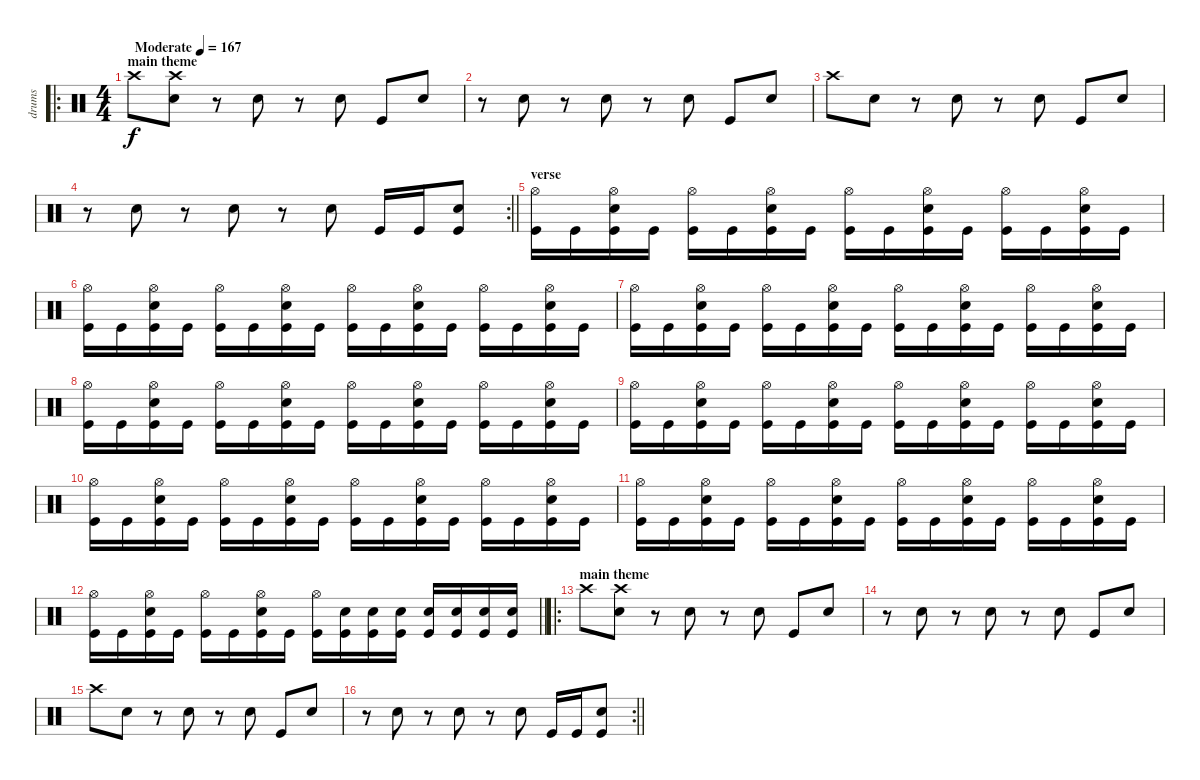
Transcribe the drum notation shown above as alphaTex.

\track ("drums" "drums") {instrument percussion}
\staff {score}
\articulation defaults
\ro
\ts (4 4)
\section ("" "main theme")
\tempo (167 "Moderate")
\clef neutral
\ks c "Crash high (hit)".8{dy f}
("Snare (hit) 2" "Crash high (hit)").8 r.8 "Snare (hit) 2".8 r.8 "Snare (hit) 2".8 "Kick (hit)".8 "Snare (hit) 2".8 |
r.8 "Snare (hit) 2".8 r.8 "Snare (hit) 2".8 r.8 "Snare (hit) 2".8 "Kick (hit)".8 "Snare (hit) 2".8 |
"Crash high (hit)".8 "Snare (hit) 2".8 r.8 "Snare (hit) 2".8 r.8 "Snare (hit) 2".8 "Kick (hit)".8 "Snare (hit) 2".8 |
\rc 2
\barLineRight lightlight
r.8 "Snare (hit) 2".8 r.8 "Snare (hit) 2".8 r.8 "Snare (hit) 2".8 "Kick (hit)".16 "Kick (hit)".16 ("Snare (hit) 2" "Kick (hit)").8 |
\section ("" "verse")
("Hi-Hat (open)" "Kick (hit)").16 "Kick (hit)".16 ("Snare (hit) 2" "Hi-Hat (open)" "Kick (hit)").16 "Kick (hit)".16 ("Hi-Hat (open)" "Kick (hit)").16 "Kick (hit)".16 ("Snare (hit) 2" "Hi-Hat (open)" "Kick (hit)").16 "Kick (hit)".16 ("Hi-Hat (open)" "Kick (hit)").16 "Kick (hit)".16 ("Snare (hit) 2" "Hi-Hat (open)" "Kick (hit)").16 "Kick (hit)".16 ("Hi-Hat (open)" "Kick (hit)").16 "Kick (hit)".16 ("Snare (hit) 2" "Hi-Hat (open)" "Kick (hit)").16 "Kick (hit)".16 |
("Hi-Hat (open)" "Kick (hit)").16 "Kick (hit)".16 ("Snare (hit) 2" "Hi-Hat (open)" "Kick (hit)").16 "Kick (hit)".16 ("Hi-Hat (open)" "Kick (hit)").16 "Kick (hit)".16 ("Snare (hit) 2" "Hi-Hat (open)" "Kick (hit)").16 "Kick (hit)".16 ("Hi-Hat (open)" "Kick (hit)").16 "Kick (hit)".16 ("Snare (hit) 2" "Hi-Hat (open)" "Kick (hit)").16 "Kick (hit)".16 ("Hi-Hat (open)" "Kick (hit)").16 "Kick (hit)".16 ("Snare (hit) 2" "Hi-Hat (open)" "Kick (hit)").16 "Kick (hit)".16 |
("Hi-Hat (open)" "Kick (hit)").16 "Kick (hit)".16 ("Snare (hit) 2" "Hi-Hat (open)" "Kick (hit)").16 "Kick (hit)".16 ("Hi-Hat (open)" "Kick (hit)").16 "Kick (hit)".16 ("Snare (hit) 2" "Hi-Hat (open)" "Kick (hit)").16 "Kick (hit)".16 ("Hi-Hat (open)" "Kick (hit)").16 "Kick (hit)".16 ("Snare (hit) 2" "Hi-Hat (open)" "Kick (hit)").16 "Kick (hit)".16 ("Hi-Hat (open)" "Kick (hit)").16 "Kick (hit)".16 ("Snare (hit) 2" "Hi-Hat (open)" "Kick (hit)").16 "Kick (hit)".16 |
("Hi-Hat (open)" "Kick (hit)").16 "Kick (hit)".16 ("Snare (hit) 2" "Hi-Hat (open)" "Kick (hit)").16 "Kick (hit)".16 ("Hi-Hat (open)" "Kick (hit)").16 "Kick (hit)".16 ("Snare (hit) 2" "Hi-Hat (open)" "Kick (hit)").16 "Kick (hit)".16 ("Hi-Hat (open)" "Kick (hit)").16 "Kick (hit)".16 ("Snare (hit) 2" "Hi-Hat (open)" "Kick (hit)").16 "Kick (hit)".16 ("Hi-Hat (open)" "Kick (hit)").16 "Kick (hit)".16 ("Snare (hit) 2" "Hi-Hat (open)" "Kick (hit)").16 "Kick (hit)".16 |
("Hi-Hat (open)" "Kick (hit)").16 "Kick (hit)".16 ("Snare (hit) 2" "Hi-Hat (open)" "Kick (hit)").16 "Kick (hit)".16 ("Hi-Hat (open)" "Kick (hit)").16 "Kick (hit)".16 ("Snare (hit) 2" "Hi-Hat (open)" "Kick (hit)").16 "Kick (hit)".16 ("Hi-Hat (open)" "Kick (hit)").16 "Kick (hit)".16 ("Snare (hit) 2" "Hi-Hat (open)" "Kick (hit)").16 "Kick (hit)".16 ("Hi-Hat (open)" "Kick (hit)").16 "Kick (hit)".16 ("Snare (hit) 2" "Hi-Hat (open)" "Kick (hit)").16 "Kick (hit)".16 |
("Hi-Hat (open)" "Kick (hit)").16 "Kick (hit)".16 ("Snare (hit) 2" "Hi-Hat (open)" "Kick (hit)").16 "Kick (hit)".16 ("Hi-Hat (open)" "Kick (hit)").16 "Kick (hit)".16 ("Snare (hit) 2" "Hi-Hat (open)" "Kick (hit)").16 "Kick (hit)".16 ("Hi-Hat (open)" "Kick (hit)").16 "Kick (hit)".16 ("Snare (hit) 2" "Hi-Hat (open)" "Kick (hit)").16 "Kick (hit)".16 ("Hi-Hat (open)" "Kick (hit)").16 "Kick (hit)".16 ("Snare (hit) 2" "Hi-Hat (open)" "Kick (hit)").16 "Kick (hit)".16 |
("Hi-Hat (open)" "Kick (hit)").16 "Kick (hit)".16 ("Snare (hit) 2" "Hi-Hat (open)" "Kick (hit)").16 "Kick (hit)".16 ("Hi-Hat (open)" "Kick (hit)").16 "Kick (hit)".16 ("Snare (hit) 2" "Hi-Hat (open)" "Kick (hit)").16 "Kick (hit)".16 ("Hi-Hat (open)" "Kick (hit)").16 "Kick (hit)".16 ("Snare (hit) 2" "Hi-Hat (open)" "Kick (hit)").16 "Kick (hit)".16 ("Hi-Hat (open)" "Kick (hit)").16 "Kick (hit)".16 ("Snare (hit) 2" "Hi-Hat (open)" "Kick (hit)").16 "Kick (hit)".16 |
\barLineRight lightlight
("Hi-Hat (open)" "Kick (hit)").16 "Kick (hit)".16 ("Snare (hit) 2" "Hi-Hat (open)" "Kick (hit)").16 "Kick (hit)".16 ("Hi-Hat (open)" "Kick (hit)").16 "Kick (hit)".16 ("Snare (hit) 2" "Hi-Hat (open)" "Kick (hit)").16 "Kick (hit)".16 ("Hi-Hat (open)" "Kick (hit)").16 ("Snare (hit) 2" "Kick (hit)").16 ("Snare (hit) 2" "Kick (hit)").16 ("Snare (hit) 2" "Kick (hit)").16 ("Snare (hit) 2" "Kick (hit)").16 ("Snare (hit) 2" "Kick (hit)").16 ("Snare (hit) 2" "Kick (hit)").16 ("Snare (hit) 2" "Kick (hit)").16 |
\ro
\section ("" "main theme")
"Crash high (hit)".8 ("Snare (hit) 2" "Crash high (hit)").8 r.8 "Snare (hit) 2".8 r.8 "Snare (hit) 2".8 "Kick (hit)".8 "Snare (hit) 2".8 |
r.8 "Snare (hit) 2".8 r.8 "Snare (hit) 2".8 r.8 "Snare (hit) 2".8 "Kick (hit)".8 "Snare (hit) 2".8 |
"Crash high (hit)".8 "Snare (hit) 2".8 r.8 "Snare (hit) 2".8 r.8 "Snare (hit) 2".8 "Kick (hit)".8 "Snare (hit) 2".8 |
\rc 2
\barLineRight lightlight
r.8 "Snare (hit) 2".8 r.8 "Snare (hit) 2".8 r.8 "Snare (hit) 2".8 "Kick (hit)".16 "Kick (hit)".16 ("Snare (hit) 2" "Kick (hit)").8
